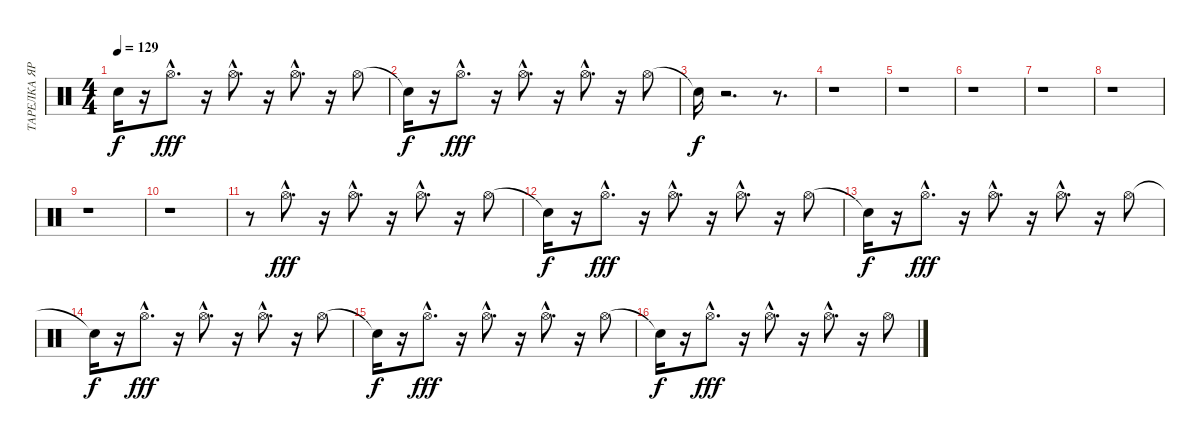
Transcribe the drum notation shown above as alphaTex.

\track ("ТАРЕЛКА ЯРКАЯ" "ТАРЕЛКА ЯР") {instrument percussion}
\staff {score}
\articulation defaults
\ts (4 4)
\tempo 129
\clef neutral
\ks c "Snare (hit)"{t}.16{dy f}
r.16 "Hi-Hat (open)"{hac}.8{d dy fff} r.16 "Hi-Hat (open)"{hac}.8{d} r.16 "Hi-Hat (open)"{hac}.8{d} r.16 "Hi-Hat (open)".8 |
"Snare (hit)"{t}.16{dy f} r.16 "Hi-Hat (open)"{hac}.8{d dy fff} r.16 "Hi-Hat (open)"{hac}.8{d} r.16 "Hi-Hat (open)"{hac}.8{d} r.16 "Hi-Hat (open)".8 |
"Snare (hit)"{t}.16{dy f} r.2{d} r.8{d} |
r.1 |
r.1 |
r.1 |
r.1 |
r.1 |
r.1 |
r.1 |
r.8 "Hi-Hat (open)"{hac}.8{d dy fff} r.16 "Hi-Hat (open)"{hac}.8{d} r.16 "Hi-Hat (open)"{hac}.8{d} r.16 "Hi-Hat (open)".8 |
"Snare (hit)"{t}.16{dy f} r.16 "Hi-Hat (open)"{hac}.8{d dy fff} r.16 "Hi-Hat (open)"{hac}.8{d} r.16 "Hi-Hat (open)"{hac}.8{d} r.16 "Hi-Hat (open)".8 |
"Snare (hit)"{t}.16{dy f} r.16 "Hi-Hat (open)"{hac}.8{d dy fff} r.16 "Hi-Hat (open)"{hac}.8{d} r.16 "Hi-Hat (open)"{hac}.8{d} r.16 "Hi-Hat (open)".8 |
"Snare (hit)"{t}.16{dy f} r.16 "Hi-Hat (open)"{hac}.8{d dy fff} r.16 "Hi-Hat (open)"{hac}.8{d} r.16 "Hi-Hat (open)"{hac}.8{d} r.16 "Hi-Hat (open)".8 |
"Snare (hit)"{t}.16{dy f} r.16 "Hi-Hat (open)"{hac}.8{d dy fff} r.16 "Hi-Hat (open)"{hac}.8{d} r.16 "Hi-Hat (open)"{hac}.8{d} r.16 "Hi-Hat (open)".8 |
"Snare (hit)"{t}.16{dy f} r.16 "Hi-Hat (open)"{hac}.8{d dy fff} r.16 "Hi-Hat (open)"{hac}.8{d} r.16 "Hi-Hat (open)"{hac}.8{d} r.16 "Hi-Hat (open)".8
